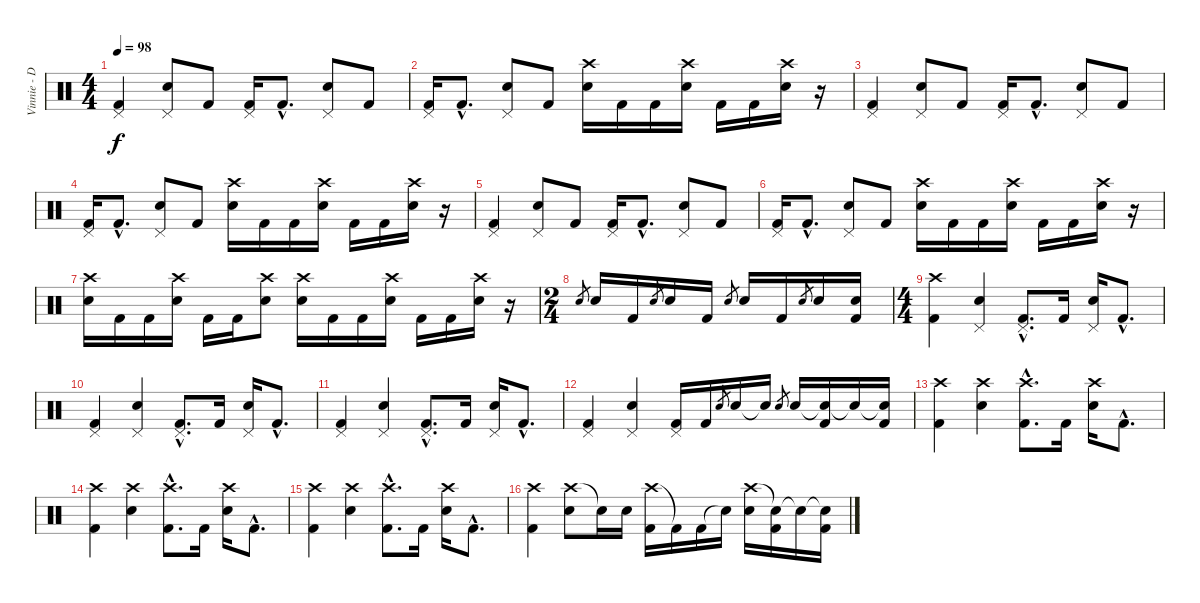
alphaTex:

\track ("Vinnie - Drums" "Vinnie - D") {instrument percussion}
\staff {score}
\articulation defaults
\ts (4 4)
\tempo 98
\clef neutral
\ks c
("Pedal Hi-Hat (hit)" "Kick (hit) 2").4{dy f} ("Pedal Hi-Hat (hit)" "Electric Snare (hit)").8 "Kick (hit) 2".8 ("Pedal Hi-Hat (hit)" "Kick (hit) 2").16 "Kick (hit) 2"{hac}.8{d} ("Pedal Hi-Hat (hit)" "Electric Snare (hit)").8 "Kick (hit) 2".8 |
("Pedal Hi-Hat (hit)" "Kick (hit) 2").16 "Kick (hit) 2"{hac}.8{d} ("Pedal Hi-Hat (hit)" "Electric Snare (hit)").8 "Kick (hit) 2".8 ("Crash high (hit)" "Electric Snare (hit)").16 "Kick (hit) 2".16 "Kick (hit) 2".16 ("Crash high (hit)" "Electric Snare (hit)").16 "Kick (hit) 2".16 "Kick (hit) 2".16 ("Crash high (hit)" "Electric Snare (hit)").16 r.16 |
("Pedal Hi-Hat (hit)" "Kick (hit) 2").4 ("Pedal Hi-Hat (hit)" "Electric Snare (hit)").8 "Kick (hit) 2".8 ("Pedal Hi-Hat (hit)" "Kick (hit) 2").16 "Kick (hit) 2"{hac}.8{d} ("Pedal Hi-Hat (hit)" "Electric Snare (hit)").8 "Kick (hit) 2".8 |
("Pedal Hi-Hat (hit)" "Kick (hit) 2").16 "Kick (hit) 2"{hac}.8{d} ("Pedal Hi-Hat (hit)" "Electric Snare (hit)").8 "Kick (hit) 2".8 ("Crash high (hit)" "Electric Snare (hit)").16 "Kick (hit) 2".16 "Kick (hit) 2".16 ("Crash high (hit)" "Electric Snare (hit)").16 "Kick (hit) 2".16 "Kick (hit) 2".16 ("Crash high (hit)" "Electric Snare (hit)").16 r.16 |
("Pedal Hi-Hat (hit)" "Kick (hit) 2").4 ("Pedal Hi-Hat (hit)" "Electric Snare (hit)").8 "Kick (hit) 2".8 ("Pedal Hi-Hat (hit)" "Kick (hit) 2").16 "Kick (hit) 2"{hac}.8{d} ("Pedal Hi-Hat (hit)" "Electric Snare (hit)").8 "Kick (hit) 2".8 |
("Pedal Hi-Hat (hit)" "Kick (hit) 2").16 "Kick (hit) 2"{hac}.8{d} ("Pedal Hi-Hat (hit)" "Electric Snare (hit)").8 "Kick (hit) 2".8 ("Crash high (hit)" "Electric Snare (hit)").16 "Kick (hit) 2".16 "Kick (hit) 2".16 ("Crash high (hit)" "Electric Snare (hit)").16 "Kick (hit) 2".16 "Kick (hit) 2".16 ("Crash high (hit)" "Electric Snare (hit)").16 r.16 |
("Crash high (hit)" "Electric Snare (hit)").16 "Kick (hit) 2".16 "Kick (hit) 2".16 ("Crash high (hit)" "Electric Snare (hit)").16 "Kick (hit) 2".16 "Kick (hit) 2".16 ("Crash high (hit)" "Electric Snare (hit)").8 ("Crash high (hit)" "Electric Snare (hit)").16 "Kick (hit) 2".16 "Kick (hit) 2".16 ("Crash high (hit)" "Electric Snare (hit)").16 "Kick (hit) 2".16 "Kick (hit) 2".16 ("Crash high (hit)" "Electric Snare (hit)").16 r.16 |
\ts (2 4)
"Electric Snare (hit)".8{gr} "Electric Snare (hit)".16 "Kick (hit) 2".16 "Electric Snare (hit)".8{gr} "Electric Snare (hit)".16 "Kick (hit) 2".16 "Electric Snare (hit)".8{gr} "Electric Snare (hit)".16 "Kick (hit) 2".16 "Electric Snare (hit)".8{gr} "Electric Snare (hit)".16 ("Electric Snare (hit)" "Kick (hit) 2").16 |
\ts (4 4)
("Crash high (hit)" "Kick (hit) 2").4 ("Pedal Hi-Hat (hit)" "Electric Snare (hit)").4 ("Pedal Hi-Hat (hit)"{hac} "Kick (hit) 2"{hac}).8{d} "Kick (hit) 2".16 ("Pedal Hi-Hat (hit)" "Electric Snare (hit)").16 "Kick (hit) 2"{hac}.8{d} |
("Pedal Hi-Hat (hit)" "Kick (hit) 2").4 ("Pedal Hi-Hat (hit)" "Electric Snare (hit)").4 ("Pedal Hi-Hat (hit)"{hac} "Kick (hit) 2"{hac}).8{d} "Kick (hit) 2".16 ("Pedal Hi-Hat (hit)" "Electric Snare (hit)").16 "Kick (hit) 2"{hac}.8{d} |
("Pedal Hi-Hat (hit)" "Kick (hit) 2").4 ("Pedal Hi-Hat (hit)" "Electric Snare (hit)").4 ("Pedal Hi-Hat (hit)"{hac} "Kick (hit) 2"{hac}).8{d} "Kick (hit) 2".16 ("Pedal Hi-Hat (hit)" "Electric Snare (hit)").16 "Kick (hit) 2"{hac}.8{d} |
("Pedal Hi-Hat (hit)" "Kick (hit) 2").4 ("Pedal Hi-Hat (hit)" "Electric Snare (hit)").4 ("Pedal Hi-Hat (hit)" "Kick (hit) 2").16 "Kick (hit) 2".16 "Electric Snare (hit)".8{gr} "Electric Snare (hit)".16 "Electric Snare (hit)"{t}.16 "Electric Snare (hit)".8{gr} "Electric Snare (hit)".16 ("Snare (hit)"{t} "Kick (hit) 2").16 "Snare (hit)"{t}.16 ("Snare (hit)"{t} "Kick (hit) 2").16 |
("Crash high (hit)" "Kick (hit) 2").4 ("Crash high (hit)" "Electric Snare (hit)").4 ("Crash high (hit)"{hac} "Kick (hit) 2"{hac}).8{d} "Kick (hit) 2".16 ("Crash high (hit)" "Electric Snare (hit)").16 "Kick (hit) 2"{hac}.8{d} |
("Crash high (hit)" "Kick (hit) 2").4 ("Crash high (hit)" "Electric Snare (hit)").4 ("Crash high (hit)"{hac} "Kick (hit) 2"{hac}).8{d} "Kick (hit) 2".16 ("Crash high (hit)" "Electric Snare (hit)").16 "Kick (hit) 2"{hac}.8{d} |
("Crash high (hit)" "Kick (hit) 2").4 ("Crash high (hit)" "Electric Snare (hit)").4 ("Crash high (hit)"{hac} "Kick (hit) 2"{hac}).8{d} "Kick (hit) 2".16 ("Crash high (hit)" "Electric Snare (hit)").16 "Kick (hit) 2"{hac}.8{d} |
("Crash high (hit)" "Kick (hit) 2").4 ("Crash high (hit)" "Electric Snare (hit)").8 "Electric Snare (hit)"{t}.16 "Electric Snare (hit)".16 ("Crash high (hit)" "Kick (hit) 2").16 "Kick (hit) 2"{t}.16 "Kick (hit) 2".16 "Snare (hit)"{t}.16 ("Crash high (hit)" "Electric Snare (hit)").16 ("Snare (hit)"{t} "Kick (hit) 2").16 "Snare (hit)"{t}.16 ("Snare (hit)"{t} "Kick (hit) 2").16
